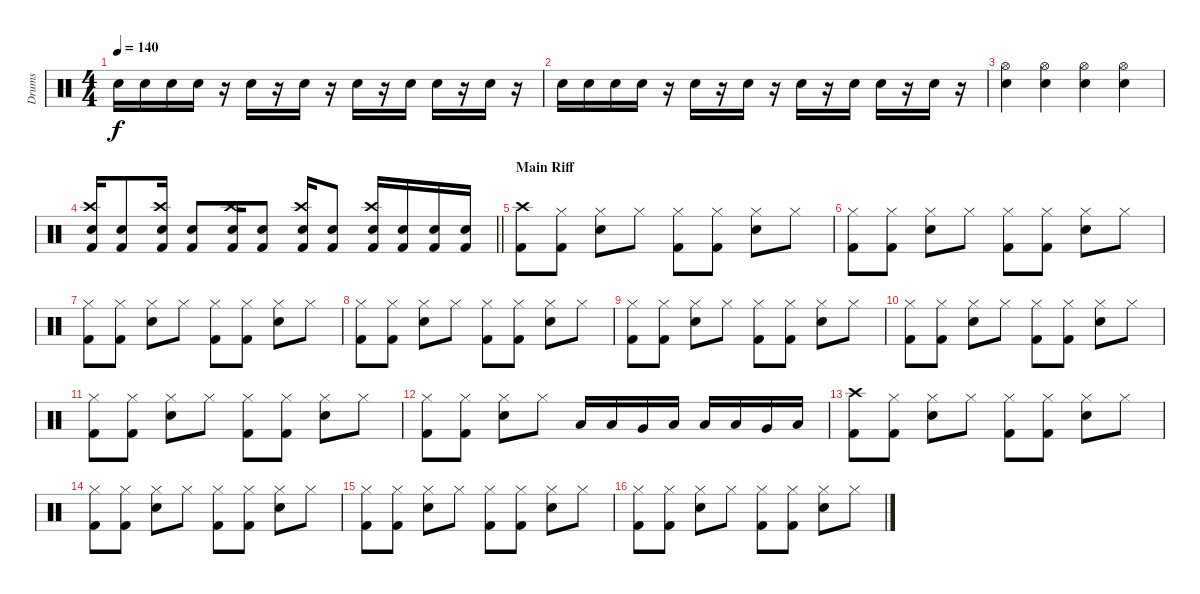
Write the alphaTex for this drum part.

\track ("Drums" "Drums") {instrument percussion}
\staff {score}
\articulation defaults
\ts (4 4)
\tempo 140
\clef neutral
\ks c "Snare (hit) 2".16{dy f} "Snare (hit) 2".16 "Snare (hit) 2".16 "Snare (hit) 2".16
r.16 "Snare (hit) 2".16 r.16 "Snare (hit) 2".16 r.16 "Snare (hit) 2".16 r.16 "Snare (hit) 2".16 "Snare (hit) 2".16 r.16 "Snare (hit) 2".16 r.16 |
"Snare (hit) 2".16 "Snare (hit) 2".16 "Snare (hit) 2".16 "Snare (hit) 2".16 r.16 "Snare (hit) 2".16 r.16 "Snare (hit) 2".16 r.16 "Snare (hit) 2".16 r.16 "Snare (hit) 2".16 "Snare (hit) 2".16 r.16 "Snare (hit) 2".16 r.16 |
("Hi-Hat (open)" "Snare (hit) 2").4 ("Hi-Hat (open)" "Snare (hit) 2").4 ("Hi-Hat (open)" "Snare (hit) 2").4 ("Hi-Hat (open)" "Snare (hit) 2").4 |
\barLineRight lightlight
("Crash high (hit)" "Snare (hit) 2" "Kick (hit) 2").16 ("Snare (hit) 2" "Kick (hit) 2").8 ("Crash high (hit)" "Snare (hit) 2" "Kick (hit) 2").16 ("Snare (hit) 2" "Kick (hit) 2").8 ("Crash high (hit)" "Snare (hit) 2" "Kick (hit) 2").16 ("Snare (hit) 2" "Kick (hit) 2").8 ("Crash high (hit)" "Snare (hit) 2" "Kick (hit) 2").16 ("Snare (hit) 2" "Kick (hit) 2").8 ("Crash high (hit)" "Snare (hit) 2" "Kick (hit) 2").16 ("Snare (hit) 2" "Kick (hit) 2").16 ("Snare (hit) 2" "Kick (hit) 2").16 ("Snare (hit) 2" "Kick (hit) 2").16 |
\section ("" "Main Riff")
("Crash high (hit)" "Kick (hit) 2").8 ("Hi-Hat (closed)" "Kick (hit) 2").8 ("Hi-Hat (closed)" "Snare (hit) 2").8 "Hi-Hat (closed)".8 ("Hi-Hat (closed)" "Kick (hit) 2").8 ("Hi-Hat (closed)" "Kick (hit) 2").8 ("Hi-Hat (closed)" "Snare (hit) 2").8 "Hi-Hat (closed)".8 |
("Hi-Hat (closed)" "Kick (hit) 2").8 ("Hi-Hat (closed)" "Kick (hit) 2").8 ("Hi-Hat (closed)" "Snare (hit) 2").8 "Hi-Hat (closed)".8 ("Hi-Hat (closed)" "Kick (hit) 2").8 ("Hi-Hat (closed)" "Kick (hit) 2").8 ("Hi-Hat (closed)" "Snare (hit) 2").8 "Hi-Hat (closed)".8 |
("Hi-Hat (closed)" "Kick (hit) 2").8 ("Hi-Hat (closed)" "Kick (hit) 2").8 ("Hi-Hat (closed)" "Snare (hit) 2").8 "Hi-Hat (closed)".8 ("Hi-Hat (closed)" "Kick (hit) 2").8 ("Hi-Hat (closed)" "Kick (hit) 2").8 ("Hi-Hat (closed)" "Snare (hit) 2").8 "Hi-Hat (closed)".8 |
("Hi-Hat (closed)" "Kick (hit) 2").8 ("Hi-Hat (closed)" "Kick (hit) 2").8 ("Hi-Hat (closed)" "Snare (hit) 2").8 "Hi-Hat (closed)".8 ("Hi-Hat (closed)" "Kick (hit) 2").8 ("Hi-Hat (closed)" "Kick (hit) 2").8 ("Hi-Hat (closed)" "Snare (hit) 2").8 "Hi-Hat (closed)".8 |
("Hi-Hat (closed)" "Kick (hit) 2").8 ("Hi-Hat (closed)" "Kick (hit) 2").8 ("Hi-Hat (closed)" "Snare (hit) 2").8 "Hi-Hat (closed)".8 ("Hi-Hat (closed)" "Kick (hit) 2").8 ("Hi-Hat (closed)" "Kick (hit) 2").8 ("Hi-Hat (closed)" "Snare (hit) 2").8 "Hi-Hat (closed)".8 |
("Hi-Hat (closed)" "Kick (hit) 2").8 ("Hi-Hat (closed)" "Kick (hit) 2").8 ("Hi-Hat (closed)" "Snare (hit) 2").8 "Hi-Hat (closed)".8 ("Hi-Hat (closed)" "Kick (hit) 2").8 ("Hi-Hat (closed)" "Kick (hit) 2").8 ("Hi-Hat (closed)" "Snare (hit) 2").8 "Hi-Hat (closed)".8 |
("Hi-Hat (closed)" "Kick (hit) 2").8 ("Hi-Hat (closed)" "Kick (hit) 2").8 ("Hi-Hat (closed)" "Snare (hit) 2").8 "Hi-Hat (closed)".8 ("Hi-Hat (closed)" "Kick (hit) 2").8 ("Hi-Hat (closed)" "Kick (hit) 2").8 ("Hi-Hat (closed)" "Snare (hit) 2").8 "Hi-Hat (closed)".8 |
("Hi-Hat (closed)" "Kick (hit) 2").8 ("Hi-Hat (closed)" "Kick (hit) 2").8 ("Hi-Hat (closed)" "Snare (hit) 2").8 "Hi-Hat (closed)".8 "Low Tom (hit)".16 "Low Tom (hit)".16 "Very Low Tom (hit)".16 "Low Floor Tom (hit)".16 "Low Tom (hit)".16 "Low Tom (hit)".16 "Very Low Tom (hit)".16 "Low Floor Tom (hit)".16 |
("Crash high (hit)" "Kick (hit) 2").8 ("Hi-Hat (closed)" "Kick (hit) 2").8 ("Hi-Hat (closed)" "Snare (hit) 2").8 "Hi-Hat (closed)".8 ("Hi-Hat (closed)" "Kick (hit) 2").8 ("Hi-Hat (closed)" "Kick (hit) 2").8 ("Hi-Hat (closed)" "Snare (hit) 2").8 "Hi-Hat (closed)".8 |
("Hi-Hat (closed)" "Kick (hit) 2").8 ("Hi-Hat (closed)" "Kick (hit) 2").8 ("Hi-Hat (closed)" "Snare (hit) 2").8 "Hi-Hat (closed)".8 ("Hi-Hat (closed)" "Kick (hit) 2").8 ("Hi-Hat (closed)" "Kick (hit) 2").8 ("Hi-Hat (closed)" "Snare (hit) 2").8 "Hi-Hat (closed)".8 |
("Hi-Hat (closed)" "Kick (hit) 2").8 ("Hi-Hat (closed)" "Kick (hit) 2").8 ("Hi-Hat (closed)" "Snare (hit) 2").8 "Hi-Hat (closed)".8 ("Hi-Hat (closed)" "Kick (hit) 2").8 ("Hi-Hat (closed)" "Kick (hit) 2").8 ("Hi-Hat (closed)" "Snare (hit) 2").8 "Hi-Hat (closed)".8 |
("Hi-Hat (closed)" "Kick (hit) 2").8 ("Hi-Hat (closed)" "Kick (hit) 2").8 ("Hi-Hat (closed)" "Snare (hit) 2").8 "Hi-Hat (closed)".8 ("Hi-Hat (closed)" "Kick (hit) 2").8 ("Hi-Hat (closed)" "Kick (hit) 2").8 ("Hi-Hat (closed)" "Snare (hit) 2").8 "Hi-Hat (closed)".8
